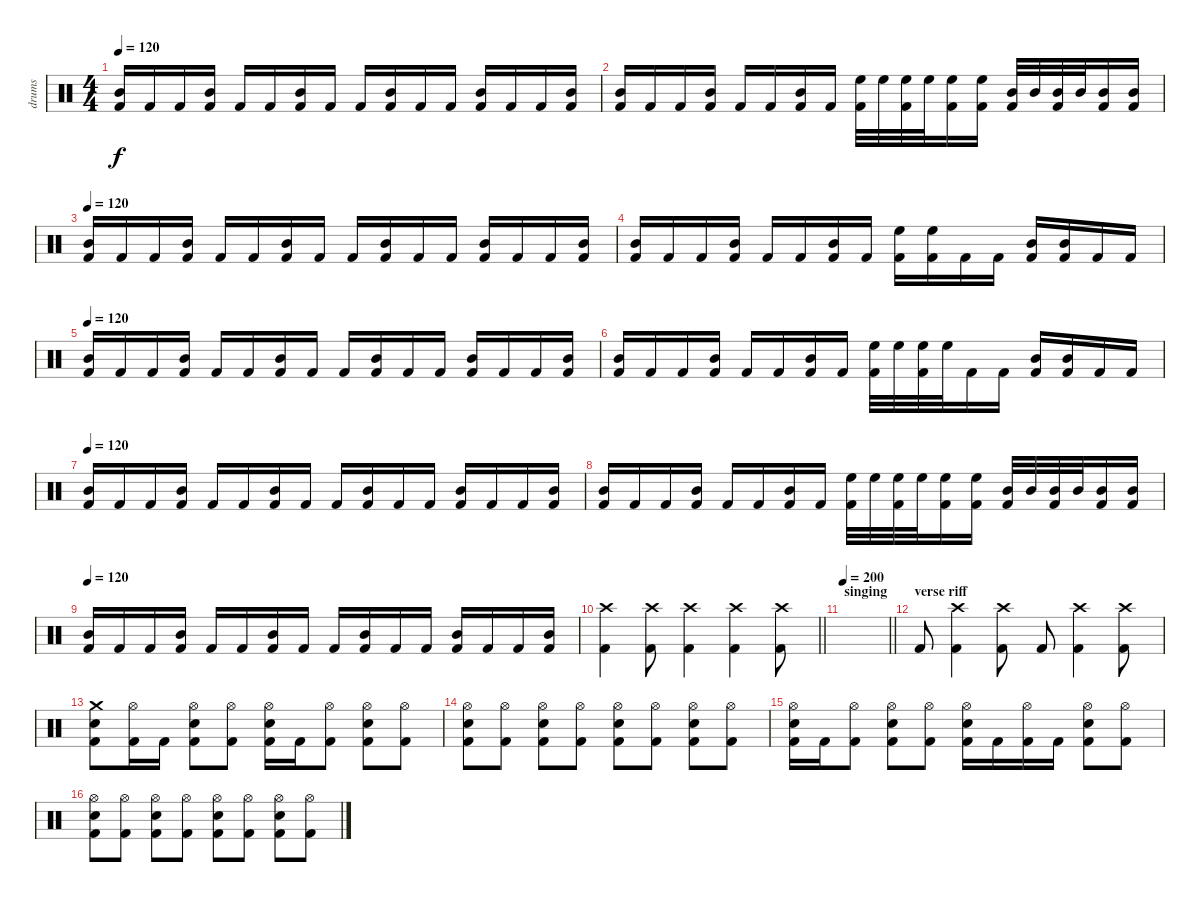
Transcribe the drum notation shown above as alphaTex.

\track ("drums" "drums") {instrument percussion}
\staff {score}
\articulation defaults
\ts (4 4)
\tempo 120
\clef neutral
\ks c
("Mid Tom (hit)" "Kick (hit) 2").16{dy f} "Kick (hit) 2".16 "Kick (hit) 2".16 ("Mid Tom (hit)" "Kick (hit) 2").16 "Kick (hit) 2".16 "Kick (hit) 2".16 ("Mid Tom (hit)" "Kick (hit) 2").16 "Kick (hit) 2".16 "Kick (hit) 2".16 ("Mid Tom (hit)" "Kick (hit) 2").16 "Kick (hit) 2".16 "Kick (hit) 2".16 ("Mid Tom (hit)" "Kick (hit) 2").16 "Kick (hit) 2".16 "Kick (hit) 2".16 ("Mid Tom (hit)" "Kick (hit) 2").16 |
("Mid Tom (hit)" "Kick (hit) 2").16 "Kick (hit) 2".16 "Kick (hit) 2".16 ("Mid Tom (hit)" "Kick (hit) 2").16 "Kick (hit) 2".16 "Kick (hit) 2".16 ("Mid Tom (hit)" "Kick (hit) 2").16 "Kick (hit) 2".16 ("High Floor Tom (hit)" "Kick (hit) 2").32 "High Floor Tom (hit)".32 ("High Floor Tom (hit)" "Kick (hit) 2").32 "High Floor Tom (hit)".32 ("High Floor Tom (hit)" "Kick (hit) 2").16 ("High Floor Tom (hit)" "Kick (hit) 2").16 ("Mid Tom (hit)" "Kick (hit) 2").32 "Mid Tom (hit)".32 ("Mid Tom (hit)" "Kick (hit) 2").32 "Mid Tom (hit)".32 ("Mid Tom (hit)" "Kick (hit) 2").16 ("Mid Tom (hit)" "Kick (hit) 2").16 |
\tempo 120
("Mid Tom (hit)" "Kick (hit) 2").16 "Kick (hit) 2".16 "Kick (hit) 2".16 ("Mid Tom (hit)" "Kick (hit) 2").16 "Kick (hit) 2".16 "Kick (hit) 2".16 ("Mid Tom (hit)" "Kick (hit) 2").16 "Kick (hit) 2".16 "Kick (hit) 2".16 ("Mid Tom (hit)" "Kick (hit) 2").16 "Kick (hit) 2".16 "Kick (hit) 2".16 ("Mid Tom (hit)" "Kick (hit) 2").16 "Kick (hit) 2".16 "Kick (hit) 2".16 ("Mid Tom (hit)" "Kick (hit) 2").16 |
("Mid Tom (hit)" "Kick (hit) 2").16 "Kick (hit) 2".16 "Kick (hit) 2".16 ("Mid Tom (hit)" "Kick (hit) 2").16 "Kick (hit) 2".16 "Kick (hit) 2".16 ("Mid Tom (hit)" "Kick (hit) 2").16 "Kick (hit) 2".16 ("High Floor Tom (hit)" "Kick (hit) 2").16 ("High Floor Tom (hit)" "Kick (hit) 2").16 "Kick (hit) 2".16 "Kick (hit) 2".16 ("Mid Tom (hit)" "Kick (hit) 2").16 ("Mid Tom (hit)" "Kick (hit) 2").16 "Kick (hit) 2".16 "Kick (hit) 2".16 |
\tempo 120
("Mid Tom (hit)" "Kick (hit) 2").16 "Kick (hit) 2".16 "Kick (hit) 2".16 ("Mid Tom (hit)" "Kick (hit) 2").16 "Kick (hit) 2".16 "Kick (hit) 2".16 ("Mid Tom (hit)" "Kick (hit) 2").16 "Kick (hit) 2".16 "Kick (hit) 2".16 ("Mid Tom (hit)" "Kick (hit) 2").16 "Kick (hit) 2".16 "Kick (hit) 2".16 ("Mid Tom (hit)" "Kick (hit) 2").16 "Kick (hit) 2".16 "Kick (hit) 2".16 ("Mid Tom (hit)" "Kick (hit) 2").16 |
("Mid Tom (hit)" "Kick (hit) 2").16 "Kick (hit) 2".16 "Kick (hit) 2".16 ("Mid Tom (hit)" "Kick (hit) 2").16 "Kick (hit) 2".16 "Kick (hit) 2".16 ("Mid Tom (hit)" "Kick (hit) 2").16 "Kick (hit) 2".16 ("High Floor Tom (hit)" "Kick (hit) 2").32 "High Floor Tom (hit)".32 ("High Floor Tom (hit)" "Kick (hit) 2").32 "High Floor Tom (hit)".32 "Kick (hit) 2".16 "Kick (hit) 2".16 ("Mid Tom (hit)" "Kick (hit) 2").16 ("Mid Tom (hit)" "Kick (hit) 2").16 "Kick (hit) 2".16 "Kick (hit) 2".16 |
\tempo 120
("Mid Tom (hit)" "Kick (hit) 2").16 "Kick (hit) 2".16 "Kick (hit) 2".16 ("Mid Tom (hit)" "Kick (hit) 2").16 "Kick (hit) 2".16 "Kick (hit) 2".16 ("Mid Tom (hit)" "Kick (hit) 2").16 "Kick (hit) 2".16 "Kick (hit) 2".16 ("Mid Tom (hit)" "Kick (hit) 2").16 "Kick (hit) 2".16 "Kick (hit) 2".16 ("Mid Tom (hit)" "Kick (hit) 2").16 "Kick (hit) 2".16 "Kick (hit) 2".16 ("Mid Tom (hit)" "Kick (hit) 2").16 |
("Mid Tom (hit)" "Kick (hit) 2").16 "Kick (hit) 2".16 "Kick (hit) 2".16 ("Mid Tom (hit)" "Kick (hit) 2").16 "Kick (hit) 2".16 "Kick (hit) 2".16 ("Mid Tom (hit)" "Kick (hit) 2").16 "Kick (hit) 2".16 ("High Floor Tom (hit)" "Kick (hit) 2").32 "High Floor Tom (hit)".32 ("High Floor Tom (hit)" "Kick (hit) 2").32 "High Floor Tom (hit)".32 ("High Floor Tom (hit)" "Kick (hit) 2").16 ("High Floor Tom (hit)" "Kick (hit) 2").16 ("Mid Tom (hit)" "Kick (hit) 2").32 "Mid Tom (hit)".32 ("Mid Tom (hit)" "Kick (hit) 2").32 "Mid Tom (hit)".32 ("Mid Tom (hit)" "Kick (hit) 2").16 ("Mid Tom (hit)" "Kick (hit) 2").16 |
\tempo 120
("Mid Tom (hit)" "Kick (hit) 2").16 "Kick (hit) 2".16 "Kick (hit) 2".16 ("Mid Tom (hit)" "Kick (hit) 2").16 "Kick (hit) 2".16 "Kick (hit) 2".16 ("Mid Tom (hit)" "Kick (hit) 2").16 "Kick (hit) 2".16 "Kick (hit) 2".16 ("Mid Tom (hit)" "Kick (hit) 2").16 "Kick (hit) 2".16 "Kick (hit) 2".16 ("Mid Tom (hit)" "Kick (hit) 2").16 "Kick (hit) 2".16 "Kick (hit) 2".16 ("Mid Tom (hit)" "Kick (hit) 2").16 |
\barLineRight lightlight
("Crash high (hit)" "Kick (hit) 2").4 ("Crash high (hit)" "Kick (hit) 2").8 ("Crash high (hit)" "Kick (hit) 2").4 ("Crash high (hit)" "Kick (hit) 2").4 ("Crash high (hit)" "Kick (hit) 2").8 |
\section ("" "singing")
\tempo 200
\barLineRight lightlight
|
\section ("" "verse riff")
"Kick (hit) 2".8 ("Crash high (hit)" "Kick (hit) 2").4 ("Crash high (hit)" "Kick (hit) 2").8 "Kick (hit) 2".8 ("Crash high (hit)" "Kick (hit) 2").4 ("Crash high (hit)" "Kick (hit) 2").8 |
("Crash medium (hit)" "Snare (hit) 2" "Kick (hit) 2").8 ("Hi-Hat (open)" "Kick (hit) 2").16 "Kick (hit) 2".16 ("Hi-Hat (open)" "Snare (hit) 2" "Kick (hit) 2").8 ("Hi-Hat (open)" "Kick (hit) 2").8 ("Hi-Hat (open)" "Snare (hit) 2" "Kick (hit) 2").16 "Kick (hit) 2".16 ("Hi-Hat (open)" "Kick (hit) 2").8 ("Hi-Hat (open)" "Snare (hit) 2" "Kick (hit) 2").8 ("Hi-Hat (open)" "Kick (hit) 2").8 |
("Hi-Hat (open)" "Snare (hit) 2" "Kick (hit) 2").8 ("Hi-Hat (open)" "Kick (hit) 2").8 ("Hi-Hat (open)" "Snare (hit) 2" "Kick (hit) 2").8 ("Hi-Hat (open)" "Kick (hit) 2").8 ("Hi-Hat (open)" "Snare (hit) 2" "Kick (hit) 2").8 ("Hi-Hat (open)" "Kick (hit) 2").8 ("Hi-Hat (open)" "Snare (hit) 2" "Kick (hit) 2").8 ("Hi-Hat (open)" "Kick (hit) 2").8 |
("Hi-Hat (open)" "Snare (hit) 2" "Kick (hit) 2").16 "Kick (hit) 2".16 ("Hi-Hat (open)" "Kick (hit) 2").8 ("Hi-Hat (open)" "Snare (hit) 2" "Kick (hit) 2").8 ("Hi-Hat (open)" "Kick (hit) 2").8 ("Hi-Hat (open)" "Snare (hit) 2" "Kick (hit) 2").16 "Kick (hit) 2".16 ("Hi-Hat (open)" "Kick (hit) 2").16 "Kick (hit) 2".16 ("Hi-Hat (open)" "Snare (hit) 2" "Kick (hit) 2").8 ("Hi-Hat (open)" "Kick (hit) 2").8 |
("Hi-Hat (open)" "Snare (hit) 2" "Kick (hit) 2").8 ("Hi-Hat (open)" "Kick (hit) 2").8 ("Hi-Hat (open)" "Snare (hit) 2" "Kick (hit) 2").8 ("Hi-Hat (open)" "Kick (hit) 2").8 ("Hi-Hat (open)" "Snare (hit) 2" "Kick (hit) 2").8 ("Hi-Hat (open)" "Kick (hit) 2").8 ("Hi-Hat (open)" "Snare (hit) 2" "Kick (hit) 2").8 ("Hi-Hat (open)" "Kick (hit) 2").8
